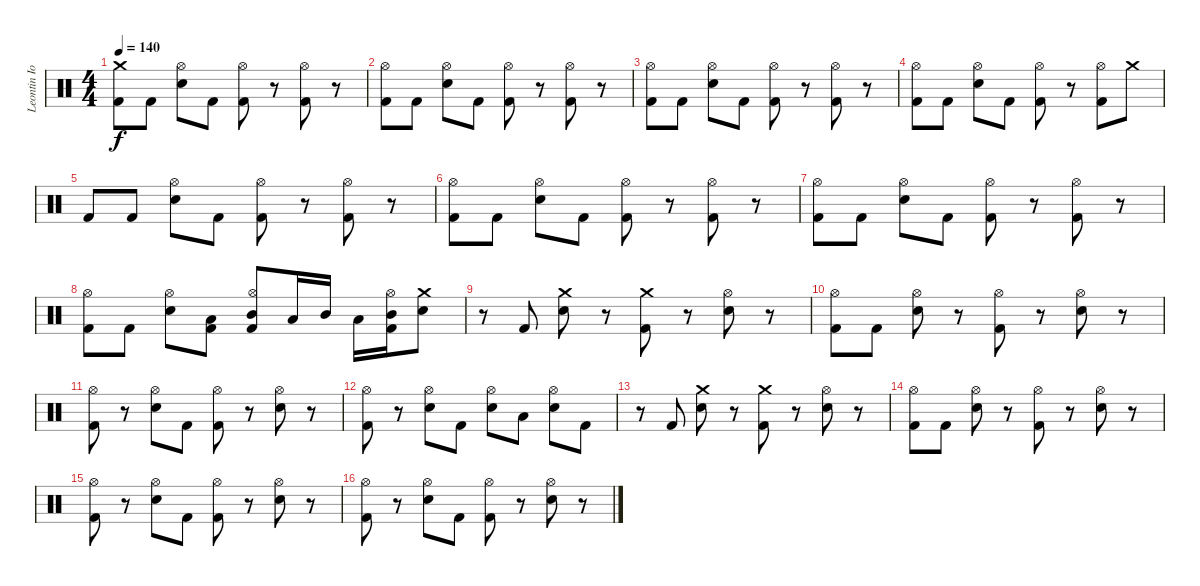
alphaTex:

\track ("Leontin Iovan" "Leontin Io") {instrument percussion}
\staff {score}
\articulation defaults
\ts (4 4)
\tempo 140
\clef neutral
\ks c
("Crash medium (hit)" "Kick (hit) 2").8{dy f} "Kick (hit) 2".8 ("Snare (hit) 2" "Hi-Hat (open)").8 "Kick (hit) 2".8 ("Kick (hit) 2" "Hi-Hat (open)").8 r.8 ("Kick (hit) 2" "Hi-Hat (open)").8 r.8 |
("Kick (hit) 2" "Hi-Hat (open)").8 "Kick (hit) 2".8 ("Snare (hit) 2" "Hi-Hat (open)").8 "Kick (hit) 2".8 ("Kick (hit) 2" "Hi-Hat (open)").8 r.8 ("Kick (hit) 2" "Hi-Hat (open)").8 r.8 |
("Kick (hit) 2" "Hi-Hat (open)").8 "Kick (hit) 2".8 ("Snare (hit) 2" "Hi-Hat (open)").8 "Kick (hit) 2".8 ("Kick (hit) 2" "Hi-Hat (open)").8 r.8 ("Kick (hit) 2" "Hi-Hat (open)").8 r.8 |
("Kick (hit) 2" "Hi-Hat (open)").8 "Kick (hit) 2".8 ("Snare (hit) 2" "Hi-Hat (open)").8 "Kick (hit) 2".8 ("Kick (hit) 2" "Hi-Hat (open)").8 r.8 ("Kick (hit) 2" "Hi-Hat (open)").8 "Crash medium (hit)".8 |
"Kick (hit) 2".8 "Kick (hit) 2".8 ("Snare (hit) 2" "Hi-Hat (open)").8 "Kick (hit) 2".8 ("Kick (hit) 2" "Hi-Hat (open)").8 r.8 ("Kick (hit) 2" "Hi-Hat (open)").8 r.8 |
("Kick (hit) 2" "Hi-Hat (open)").8 "Kick (hit) 2".8 ("Snare (hit) 2" "Hi-Hat (open)").8 "Kick (hit) 2".8 ("Kick (hit) 2" "Hi-Hat (open)").8 r.8 ("Kick (hit) 2" "Hi-Hat (open)").8 r.8 |
("Kick (hit) 2" "Hi-Hat (open)").8 "Kick (hit) 2".8 ("Snare (hit) 2" "Hi-Hat (open)").8 "Kick (hit) 2".8 ("Kick (hit) 2" "Hi-Hat (open)").8 r.8 ("Kick (hit) 2" "Hi-Hat (open)").8 r.8 |
("Kick (hit) 2" "Hi-Hat (open)").8 "Kick (hit) 2".8 ("Snare (hit) 2" "Hi-Hat (open)").8 ("Kick (hit) 2" "Low Tom (hit)").8 ("Kick (hit) 2" "Hi-Hat (open)" "Mid Tom (hit)").8 "Low Tom (hit)".16 "Mid Tom (hit)".16 "Low Tom (hit)".16 ("Kick (hit) 2" "Hi-Hat (open)" "Mid Tom (hit)").16 ("Snare (hit) 2" "Crash medium (hit)").8 |
r.8 "Kick (hit) 2".8 ("Snare (hit) 2" "Crash medium (hit)").8 r.8 ("Kick (hit) 2" "Crash medium (hit)").8 r.8 ("Snare (hit) 2" "Hi-Hat (open)").8 r.8 |
("Kick (hit) 2" "Hi-Hat (open)").8 "Kick (hit) 2".8 ("Snare (hit) 2" "Hi-Hat (open)").8 r.8 ("Kick (hit) 2" "Hi-Hat (open)").8 r.8 ("Snare (hit) 2" "Hi-Hat (open)").8 r.8 |
("Kick (hit) 2" "Hi-Hat (open)").8 r.8 ("Snare (hit) 2" "Hi-Hat (open)").8 "Kick (hit) 2".8 ("Kick (hit) 2" "Hi-Hat (open)").8 r.8 ("Snare (hit) 2" "Hi-Hat (open)").8 r.8 |
("Kick (hit) 2" "Hi-Hat (open)").8 r.8 ("Snare (hit) 2" "Hi-Hat (open)").8 "Kick (hit) 2".8 ("Snare (hit) 2" "Hi-Hat (open)").8 "Low Tom (hit)".8 ("Snare (hit) 2" "Hi-Hat (open)").8 "Kick (hit) 2".8 |
r.8 "Kick (hit) 2".8 ("Snare (hit) 2" "Crash medium (hit)").8 r.8 ("Kick (hit) 2" "Crash medium (hit)").8 r.8 ("Snare (hit) 2" "Hi-Hat (open)").8 r.8 |
("Kick (hit) 2" "Hi-Hat (open)").8 "Kick (hit) 2".8 ("Snare (hit) 2" "Hi-Hat (open)").8 r.8 ("Kick (hit) 2" "Hi-Hat (open)").8 r.8 ("Snare (hit) 2" "Hi-Hat (open)").8 r.8 |
("Kick (hit) 2" "Hi-Hat (open)").8 r.8 ("Snare (hit) 2" "Hi-Hat (open)").8 "Kick (hit) 2".8 ("Kick (hit) 2" "Hi-Hat (open)").8 r.8 ("Snare (hit) 2" "Hi-Hat (open)").8 r.8 |
("Kick (hit) 2" "Hi-Hat (open)").8 r.8 ("Snare (hit) 2" "Hi-Hat (open)").8 "Kick (hit) 2".8 ("Kick (hit) 2" "Hi-Hat (open)").8 r.8 ("Snare (hit) 2" "Hi-Hat (open)").8 r.8
